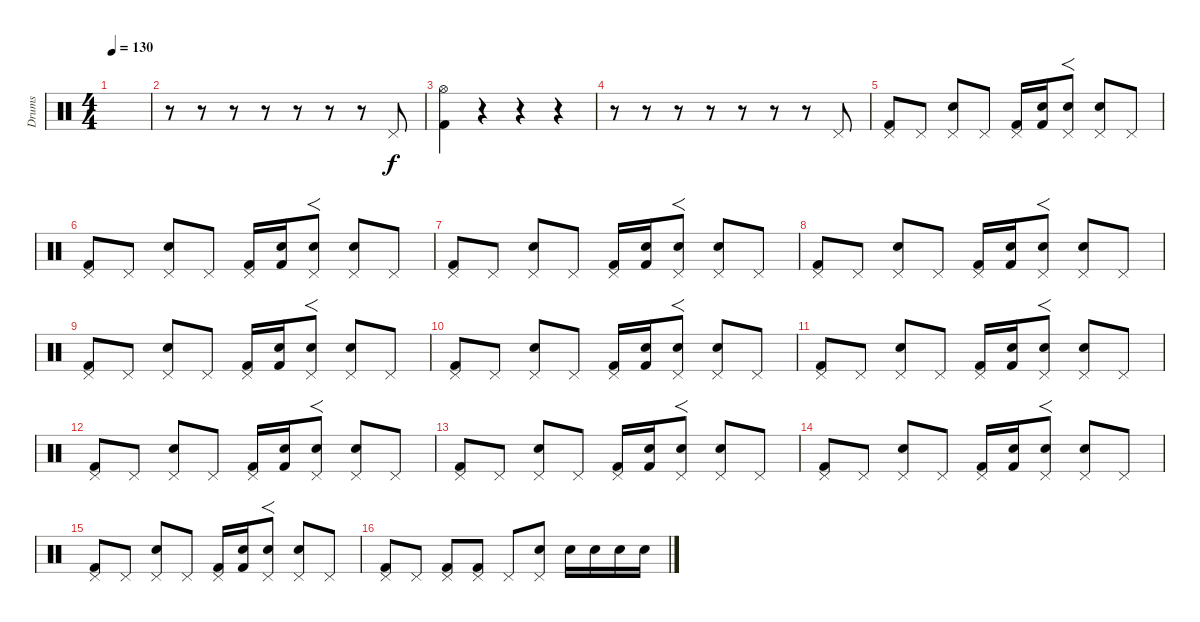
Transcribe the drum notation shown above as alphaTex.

\track ("Drums" "Drums") {instrument percussion}
\staff {score}
\articulation defaults
\ts (4 4)
\tempo 130
\clef neutral
\ks c
|
r.8 r.8 r.8 r.8 r.8 r.8 r.8 "Pedal Hi-Hat (hit)".8 |
("Kick (hit) 2" "Hi-Hat (open)").4 r.4 r.4 r.4 |
r.8 r.8 r.8 r.8 r.8 r.8 r.8 "Pedal Hi-Hat (hit)".8 |
("Kick (hit) 2" "Pedal Hi-Hat (hit)").8 "Pedal Hi-Hat (hit)".8 ("Electric Snare (hit)" "Pedal Hi-Hat (hit)").8 "Pedal Hi-Hat (hit)".8 ("Kick (hit) 2" "Pedal Hi-Hat (hit)").16 ("Kick (hit) 2" "Electric Snare (hit)").16 ("Electric Snare (hit)" "Pedal Hi-Hat (hit)").8{f} ("Electric Snare (hit)" "Pedal Hi-Hat (hit)").8 "Pedal Hi-Hat (hit)".8 |
("Kick (hit) 2" "Pedal Hi-Hat (hit)").8 "Pedal Hi-Hat (hit)".8 ("Electric Snare (hit)" "Pedal Hi-Hat (hit)").8 "Pedal Hi-Hat (hit)".8 ("Kick (hit) 2" "Pedal Hi-Hat (hit)").16 ("Kick (hit) 2" "Electric Snare (hit)").16 ("Electric Snare (hit)" "Pedal Hi-Hat (hit)").8{f} ("Electric Snare (hit)" "Pedal Hi-Hat (hit)").8 "Pedal Hi-Hat (hit)".8 |
("Kick (hit) 2" "Pedal Hi-Hat (hit)").8 "Pedal Hi-Hat (hit)".8 ("Electric Snare (hit)" "Pedal Hi-Hat (hit)").8 "Pedal Hi-Hat (hit)".8 ("Kick (hit) 2" "Pedal Hi-Hat (hit)").16 ("Kick (hit) 2" "Electric Snare (hit)").16 ("Electric Snare (hit)" "Pedal Hi-Hat (hit)").8{f} ("Electric Snare (hit)" "Pedal Hi-Hat (hit)").8 "Pedal Hi-Hat (hit)".8 |
("Kick (hit) 2" "Pedal Hi-Hat (hit)").8 "Pedal Hi-Hat (hit)".8 ("Electric Snare (hit)" "Pedal Hi-Hat (hit)").8 "Pedal Hi-Hat (hit)".8 ("Kick (hit) 2" "Pedal Hi-Hat (hit)").16 ("Kick (hit) 2" "Electric Snare (hit)").16 ("Electric Snare (hit)" "Pedal Hi-Hat (hit)").8{f} ("Electric Snare (hit)" "Pedal Hi-Hat (hit)").8 "Pedal Hi-Hat (hit)".8 |
("Kick (hit) 2" "Pedal Hi-Hat (hit)").8 "Pedal Hi-Hat (hit)".8 ("Electric Snare (hit)" "Pedal Hi-Hat (hit)").8 "Pedal Hi-Hat (hit)".8 ("Kick (hit) 2" "Pedal Hi-Hat (hit)").16 ("Kick (hit) 2" "Electric Snare (hit)").16 ("Electric Snare (hit)" "Pedal Hi-Hat (hit)").8{f} ("Electric Snare (hit)" "Pedal Hi-Hat (hit)").8 "Pedal Hi-Hat (hit)".8 |
("Kick (hit) 2" "Pedal Hi-Hat (hit)").8 "Pedal Hi-Hat (hit)".8 ("Electric Snare (hit)" "Pedal Hi-Hat (hit)").8 "Pedal Hi-Hat (hit)".8 ("Kick (hit) 2" "Pedal Hi-Hat (hit)").16 ("Kick (hit) 2" "Electric Snare (hit)").16 ("Electric Snare (hit)" "Pedal Hi-Hat (hit)").8{f} ("Electric Snare (hit)" "Pedal Hi-Hat (hit)").8 "Pedal Hi-Hat (hit)".8 |
("Kick (hit) 2" "Pedal Hi-Hat (hit)").8 "Pedal Hi-Hat (hit)".8 ("Electric Snare (hit)" "Pedal Hi-Hat (hit)").8 "Pedal Hi-Hat (hit)".8 ("Kick (hit) 2" "Pedal Hi-Hat (hit)").16 ("Kick (hit) 2" "Electric Snare (hit)").16 ("Electric Snare (hit)" "Pedal Hi-Hat (hit)").8{f} ("Electric Snare (hit)" "Pedal Hi-Hat (hit)").8 "Pedal Hi-Hat (hit)".8 |
("Kick (hit) 2" "Pedal Hi-Hat (hit)").8 "Pedal Hi-Hat (hit)".8 ("Electric Snare (hit)" "Pedal Hi-Hat (hit)").8 "Pedal Hi-Hat (hit)".8 ("Kick (hit) 2" "Pedal Hi-Hat (hit)").16 ("Kick (hit) 2" "Electric Snare (hit)").16 ("Electric Snare (hit)" "Pedal Hi-Hat (hit)").8{f} ("Electric Snare (hit)" "Pedal Hi-Hat (hit)").8 "Pedal Hi-Hat (hit)".8 |
("Kick (hit) 2" "Pedal Hi-Hat (hit)").8 "Pedal Hi-Hat (hit)".8 ("Electric Snare (hit)" "Pedal Hi-Hat (hit)").8 "Pedal Hi-Hat (hit)".8 ("Kick (hit) 2" "Pedal Hi-Hat (hit)").16 ("Kick (hit) 2" "Electric Snare (hit)").16 ("Electric Snare (hit)" "Pedal Hi-Hat (hit)").8{f} ("Electric Snare (hit)" "Pedal Hi-Hat (hit)").8 "Pedal Hi-Hat (hit)".8 |
("Kick (hit) 2" "Pedal Hi-Hat (hit)").8 "Pedal Hi-Hat (hit)".8 ("Electric Snare (hit)" "Pedal Hi-Hat (hit)").8 "Pedal Hi-Hat (hit)".8 ("Kick (hit) 2" "Pedal Hi-Hat (hit)").16 ("Kick (hit) 2" "Electric Snare (hit)").16 ("Electric Snare (hit)" "Pedal Hi-Hat (hit)").8{f} ("Electric Snare (hit)" "Pedal Hi-Hat (hit)").8 "Pedal Hi-Hat (hit)".8 |
("Kick (hit) 2" "Pedal Hi-Hat (hit)").8 "Pedal Hi-Hat (hit)".8 ("Electric Snare (hit)" "Pedal Hi-Hat (hit)").8 "Pedal Hi-Hat (hit)".8 ("Kick (hit) 2" "Pedal Hi-Hat (hit)").16 ("Kick (hit) 2" "Electric Snare (hit)").16 ("Electric Snare (hit)" "Pedal Hi-Hat (hit)").8{f} ("Electric Snare (hit)" "Pedal Hi-Hat (hit)").8 "Pedal Hi-Hat (hit)".8 |
("Kick (hit) 2" "Pedal Hi-Hat (hit)").8 "Pedal Hi-Hat (hit)".8 ("Kick (hit) 2" "Pedal Hi-Hat (hit)").8 ("Kick (hit) 2" "Pedal Hi-Hat (hit)").8 "Pedal Hi-Hat (hit)".8 ("Electric Snare (hit)" "Pedal Hi-Hat (hit)").8 "Electric Snare (hit)".16 "Electric Snare (hit)".16 "Electric Snare (hit)".16 "Electric Snare (hit)".16
